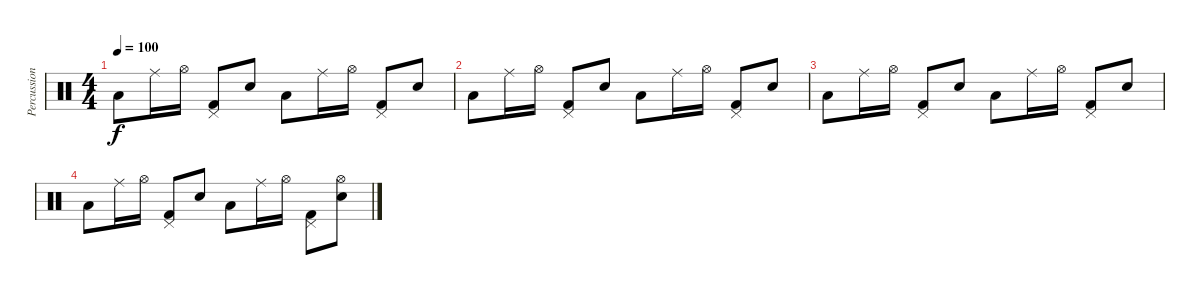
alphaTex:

\track ("Percussion" "Percussion") {instrument percussion}
\staff {score}
\articulation defaults
\ts (4 4)
\tempo 100
\clef neutral
\ks c "Low Tom (hit)".8{dy f} "Ride (middle)".16 "Hi-Hat (open)".16
("Pedal Hi-Hat (hit)" "Kick (hit) 2").8 "Electric Snare (hit)".8 "Low Tom (hit)".8 "Ride (middle)".16 "Hi-Hat (open)".16 ("Pedal Hi-Hat (hit)" "Kick (hit) 2").8 "Electric Snare (hit)".8 |
"Low Tom (hit)".8 "Ride (middle)".16 "Hi-Hat (open)".16 ("Pedal Hi-Hat (hit)" "Kick (hit) 2").8 "Electric Snare (hit)".8 "Low Tom (hit)".8 "Ride (middle)".16 "Hi-Hat (open)".16 ("Pedal Hi-Hat (hit)" "Kick (hit) 2").8 "Electric Snare (hit)".8 |
"Low Tom (hit)".8 "Ride (middle)".16 "Hi-Hat (open)".16 ("Pedal Hi-Hat (hit)" "Kick (hit) 2").8 "Electric Snare (hit)".8 "Low Tom (hit)".8 "Ride (middle)".16 "Hi-Hat (open)".16 ("Pedal Hi-Hat (hit)" "Kick (hit) 2").8 "Electric Snare (hit)".8 |
"Low Tom (hit)".8 "Ride (middle)".16 "Hi-Hat (open)".16 ("Pedal Hi-Hat (hit)" "Kick (hit) 2").8 "Electric Snare (hit)".8 "Low Tom (hit)".8 "Ride (middle)".16 "Hi-Hat (open)".16 ("Pedal Hi-Hat (hit)" "Kick (hit) 2").8 ("Hi-Hat (open)" "Electric Snare (hit)").8
